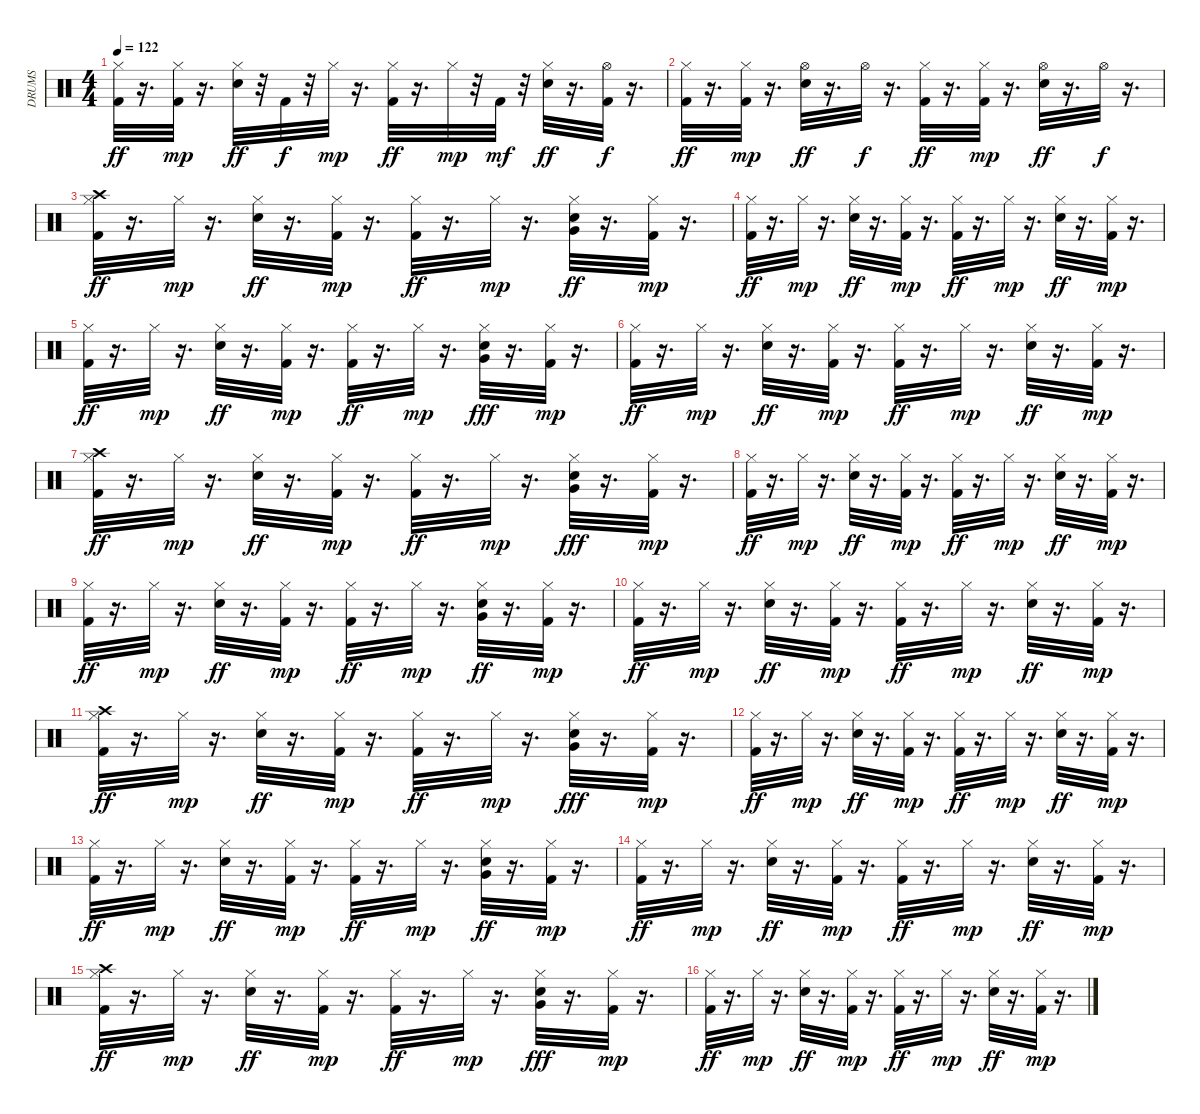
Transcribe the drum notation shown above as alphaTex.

\track ("DRUMS" "DRUMS") {instrument percussion}
\staff {score}
\articulation defaults
\ts (4 4)
\tempo 122
\clef neutral
\ks c
("Hi-Hat (closed)" "Kick (hit) 2").32{dy ff} r.16{d} ("Hi-Hat (closed)" "Kick (hit) 2").32{dy mp} r.16{d} ("Snare (hit) 2" "Hi-Hat (closed)").32{dy ff} r.32 "Kick (hit) 2".32{dy f} r.32 "Hi-Hat (closed)".32{dy mp} r.16{d} ("Hi-Hat (closed)" "Kick (hit) 2").32{dy ff} r.16{d} "Hi-Hat (closed)".32{dy mp} r.32 "Kick (hit) 2".32{dy mf} r.32 ("Snare (hit) 2" "Hi-Hat (closed)").32{dy ff} r.16{d} ("Kick (hit) 2" "Hi-Hat (open)").32{dy f} r.16{d} |
("Hi-Hat (closed)" "Kick (hit) 2").32{dy ff} r.16{d} ("Kick (hit) 2" "Hi-Hat (closed)").32{dy mp} r.16{d} ("Hi-Hat (open)" "Snare (hit) 2").32{dy ff} r.16{d} "Hi-Hat (open)".32{dy f} r.16{d} ("Kick (hit) 2" "Hi-Hat (closed)").32{dy ff} r.16{d} ("Kick (hit) 2" "Hi-Hat (closed)").32{dy mp} r.16{d} ("Hi-Hat (open)" "Snare (hit) 2").32{dy ff} r.16{d} "Hi-Hat (open)".32{dy f} r.16{d} |
("Kick (hit) 2" "Hi-Hat (closed)" "Crash high (hit)").32{dy ff} r.16{d} "Hi-Hat (closed)".32{dy mp} r.16{d} ("Hi-Hat (closed)" "Snare (hit) 2").32{dy ff} r.16{d} ("Kick (hit) 2" "Hi-Hat (closed)").32{dy mp} r.16{d} ("Hi-Hat (closed)" "Kick (hit) 2").32{dy ff} r.16{d} "Hi-Hat (closed)".32{dy mp} r.16{d} ("Very Low Tom (hit)" "Hi-Hat (closed)" "Snare (hit) 2").32{dy ff} r.16{d} ("Kick (hit) 2" "Hi-Hat (closed)").32{dy mp} r.16{d} |
("Kick (hit) 2" "Hi-Hat (closed)").32{dy ff} r.16{d} "Hi-Hat (closed)".32{dy mp} r.16{d} ("Hi-Hat (closed)" "Snare (hit) 2").32{dy ff} r.16{d} ("Kick (hit) 2" "Hi-Hat (closed)").32{dy mp} r.16{d} ("Hi-Hat (closed)" "Kick (hit) 2").32{dy ff} r.16{d} "Hi-Hat (closed)".32{dy mp} r.16{d} ("Hi-Hat (closed)" "Snare (hit) 2").32{dy ff} r.16{d} ("Hi-Hat (closed)" "Kick (hit) 2").32{dy mp} r.16{d} |
("Kick (hit) 2" "Hi-Hat (closed)").32{dy ff} r.16{d} "Hi-Hat (closed)".32{dy mp} r.16{d} ("Snare (hit) 2" "Hi-Hat (closed)").32{dy ff} r.16{d} ("Hi-Hat (closed)" "Kick (hit) 2").32{dy mp} r.16{d} ("Hi-Hat (closed)" "Kick (hit) 2").32{dy ff} r.16{d} "Hi-Hat (closed)".32{dy mp} r.16{d} ("Snare (hit) 2" "Hi-Hat (closed)" "Very Low Tom (hit)").32{dy fff} r.16{d} ("Hi-Hat (closed)" "Kick (hit) 2").32{dy mp} r.16{d} |
("Hi-Hat (closed)" "Kick (hit) 2").32{dy ff} r.16{d} "Hi-Hat (closed)".32{dy mp} r.16{d} ("Snare (hit) 2" "Hi-Hat (closed)").32{dy ff} r.16{d} ("Kick (hit) 2" "Hi-Hat (closed)").32{dy mp} r.16{d} ("Hi-Hat (closed)" "Kick (hit) 2").32{dy ff} r.16{d} "Hi-Hat (closed)".32{dy mp} r.16{d} ("Hi-Hat (closed)" "Snare (hit) 2").32{dy ff} r.16{d} ("Hi-Hat (closed)" "Kick (hit) 2").32{dy mp} r.16{d} |
("Hi-Hat (closed)" "Kick (hit) 2" "Crash high (hit)").32{dy ff} r.16{d} "Hi-Hat (closed)".32{dy mp} r.16{d} ("Snare (hit) 2" "Hi-Hat (closed)").32{dy ff} r.16{d} ("Kick (hit) 2" "Hi-Hat (closed)").32{dy mp} r.16{d} ("Hi-Hat (closed)" "Kick (hit) 2").32{dy ff} r.16{d} "Hi-Hat (closed)".32{dy mp} r.16{d} ("Hi-Hat (closed)" "Snare (hit) 2" "Very Low Tom (hit)").32{dy fff} r.16{d} ("Kick (hit) 2" "Hi-Hat (closed)").32{dy mp} r.16{d} |
("Kick (hit) 2" "Hi-Hat (closed)").32{dy ff} r.16{d} "Hi-Hat (closed)".32{dy mp} r.16{d} ("Snare (hit) 2" "Hi-Hat (closed)").32{dy ff} r.16{d} ("Hi-Hat (closed)" "Kick (hit) 2").32{dy mp} r.16{d} ("Hi-Hat (closed)" "Kick (hit) 2").32{dy ff} r.16{d} "Hi-Hat (closed)".32{dy mp} r.16{d} ("Snare (hit) 2" "Hi-Hat (closed)").32{dy ff} r.16{d} ("Kick (hit) 2" "Hi-Hat (closed)").32{dy mp} r.16{d} |
("Hi-Hat (closed)" "Kick (hit) 2").32{dy ff} r.16{d} "Hi-Hat (closed)".32{dy mp} r.16{d} ("Snare (hit) 2" "Hi-Hat (closed)").32{dy ff} r.16{d} ("Kick (hit) 2" "Hi-Hat (closed)").32{dy mp} r.16{d} ("Hi-Hat (closed)" "Kick (hit) 2").32{dy ff} r.16{d} "Hi-Hat (closed)".32{dy mp} r.16{d} ("Very Low Tom (hit)" "Snare (hit) 2" "Hi-Hat (closed)").32{dy ff} r.16{d} ("Kick (hit) 2" "Hi-Hat (closed)").32{dy mp} r.16{d} |
("Hi-Hat (closed)" "Kick (hit) 2").32{dy ff} r.16{d} "Hi-Hat (closed)".32{dy mp} r.16{d} ("Snare (hit) 2" "Hi-Hat (closed)").32{dy ff} r.16{d} ("Kick (hit) 2" "Hi-Hat (closed)").32{dy mp} r.16{d} ("Kick (hit) 2" "Hi-Hat (closed)").32{dy ff} r.16{d} "Hi-Hat (closed)".32{dy mp} r.16{d} ("Snare (hit) 2" "Hi-Hat (closed)").32{dy ff} r.16{d} ("Kick (hit) 2" "Hi-Hat (closed)").32{dy mp} r.16{d} |
("Hi-Hat (closed)" "Crash high (hit)" "Kick (hit) 2").32{dy ff} r.16{d} "Hi-Hat (closed)".32{dy mp} r.16{d} ("Hi-Hat (closed)" "Snare (hit) 2").32{dy ff} r.16{d} ("Kick (hit) 2" "Hi-Hat (closed)").32{dy mp} r.16{d} ("Hi-Hat (closed)" "Kick (hit) 2").32{dy ff} r.16{d} "Hi-Hat (closed)".32{dy mp} r.16{d} ("Snare (hit) 2" "Hi-Hat (closed)" "Very Low Tom (hit)").32{dy fff} r.16{d} ("Kick (hit) 2" "Hi-Hat (closed)").32{dy mp} r.16{d} |
("Kick (hit) 2" "Hi-Hat (closed)").32{dy ff} r.16{d} "Hi-Hat (closed)".32{dy mp} r.16{d} ("Snare (hit) 2" "Hi-Hat (closed)").32{dy ff} r.16{d} ("Hi-Hat (closed)" "Kick (hit) 2").32{dy mp} r.16{d} ("Hi-Hat (closed)" "Kick (hit) 2").32{dy ff} r.16{d} "Hi-Hat (closed)".32{dy mp} r.16{d} ("Hi-Hat (closed)" "Snare (hit) 2").32{dy ff} r.16{d} ("Kick (hit) 2" "Hi-Hat (closed)").32{dy mp} r.16{d} |
("Kick (hit) 2" "Hi-Hat (closed)").32{dy ff} r.16{d} "Hi-Hat (closed)".32{dy mp} r.16{d} ("Snare (hit) 2" "Hi-Hat (closed)").32{dy ff} r.16{d} ("Kick (hit) 2" "Hi-Hat (closed)").32{dy mp} r.16{d} ("Hi-Hat (closed)" "Kick (hit) 2").32{dy ff} r.16{d} "Hi-Hat (closed)".32{dy mp} r.16{d} ("Hi-Hat (closed)" "Very Low Tom (hit)" "Snare (hit) 2").32{dy ff} r.16{d} ("Hi-Hat (closed)" "Kick (hit) 2").32{dy mp} r.16{d} |
("Hi-Hat (closed)" "Kick (hit) 2").32{dy ff} r.16{d} "Hi-Hat (closed)".32{dy mp} r.16{d} ("Snare (hit) 2" "Hi-Hat (closed)").32{dy ff} r.16{d} ("Kick (hit) 2" "Hi-Hat (closed)").32{dy mp} r.16{d} ("Kick (hit) 2" "Hi-Hat (closed)").32{dy ff} r.16{d} "Hi-Hat (closed)".32{dy mp} r.16{d} ("Hi-Hat (closed)" "Snare (hit) 2").32{dy ff} r.16{d} ("Hi-Hat (closed)" "Kick (hit) 2").32{dy mp} r.16{d} |
("Hi-Hat (closed)" "Crash high (hit)" "Kick (hit) 2").32{dy ff} r.16{d} "Hi-Hat (closed)".32{dy mp} r.16{d} ("Hi-Hat (closed)" "Snare (hit) 2").32{dy ff} r.16{d} ("Kick (hit) 2" "Hi-Hat (closed)").32{dy mp} r.16{d} ("Kick (hit) 2" "Hi-Hat (closed)").32{dy ff} r.16{d} "Hi-Hat (closed)".32{dy mp} r.16{d} ("Snare (hit) 2" "Very Low Tom (hit)" "Hi-Hat (closed)").32{dy fff} r.16{d} ("Kick (hit) 2" "Hi-Hat (closed)").32{dy mp} r.16{d} |
("Kick (hit) 2" "Hi-Hat (closed)").32{dy ff} r.16{d} "Hi-Hat (closed)".32{dy mp} r.16{d} ("Hi-Hat (closed)" "Snare (hit) 2").32{dy ff} r.16{d} ("Kick (hit) 2" "Hi-Hat (closed)").32{dy mp} r.16{d} ("Hi-Hat (closed)" "Kick (hit) 2").32{dy ff} r.16{d} "Hi-Hat (closed)".32{dy mp} r.16{d} ("Hi-Hat (closed)" "Snare (hit) 2").32{dy ff} r.16{d} ("Kick (hit) 2" "Hi-Hat (closed)").32{dy mp} r.16{d}
